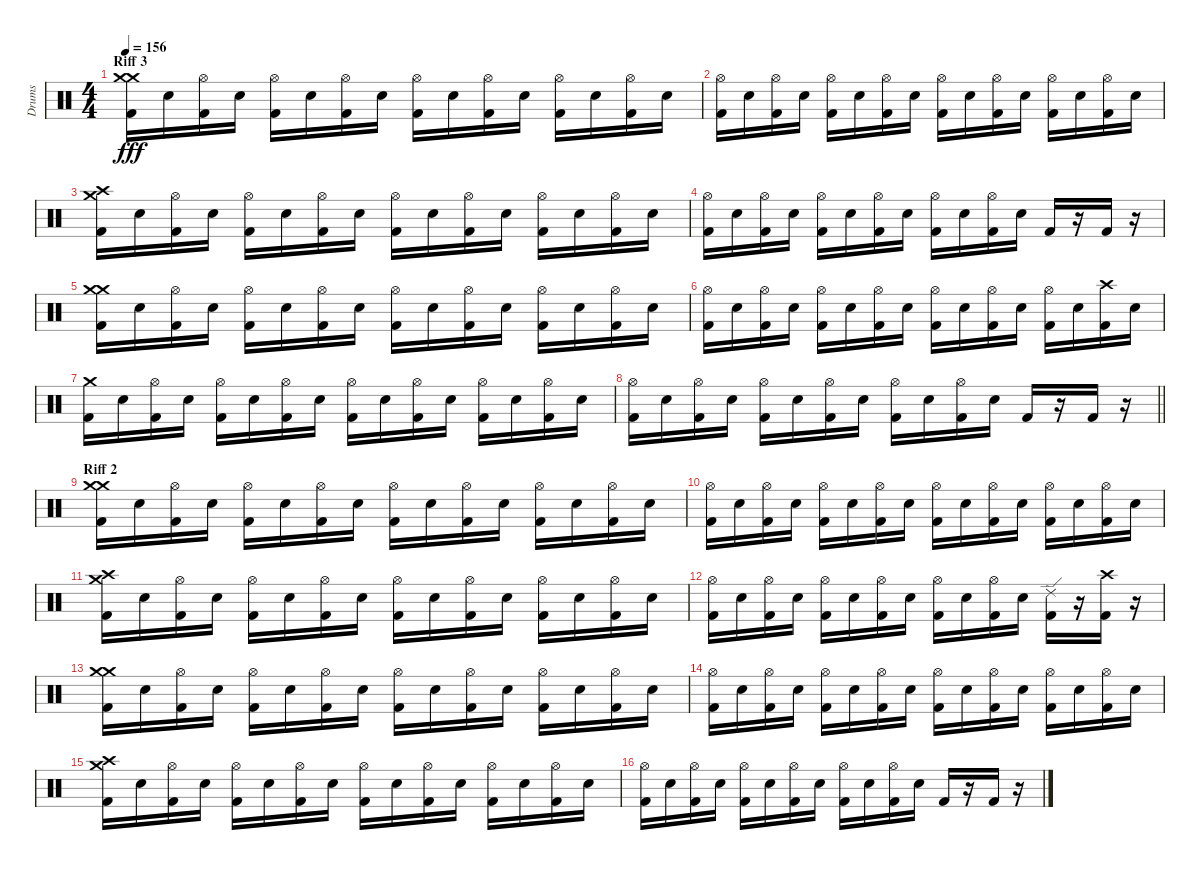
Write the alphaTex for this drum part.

\track ("Drums" "Drums") {instrument percussion}
\staff {score}
\articulation defaults
\ts (4 4)
\section ("" "Riff 3")
\tempo 156
\clef neutral
\ks c
("Kick (hit) 2" "Crash medium (hit)" "Crash medium (hit)").16{dy fff} "Snare (hit) 2".16 ("Kick (hit) 2" "Hi-Hat (open)").16 "Snare (hit) 2".16 ("Kick (hit) 2" "Hi-Hat (open)").16 "Snare (hit) 2".16 ("Kick (hit) 2" "Hi-Hat (open)").16 "Snare (hit) 2".16 ("Kick (hit) 2" "Hi-Hat (open)").16 "Snare (hit) 2".16 ("Kick (hit) 2" "Hi-Hat (open)").16 "Snare (hit) 2".16 ("Kick (hit) 2" "Hi-Hat (open)").16 "Snare (hit) 2".16 ("Kick (hit) 2" "Hi-Hat (open)").16 "Snare (hit) 2".16 |
("Kick (hit) 2" "Hi-Hat (open)").16 "Snare (hit) 2".16 ("Kick (hit) 2" "Hi-Hat (open)").16 "Snare (hit) 2".16 ("Kick (hit) 2" "Hi-Hat (open)").16 "Snare (hit) 2".16 ("Kick (hit) 2" "Hi-Hat (open)").16 "Snare (hit) 2".16 ("Kick (hit) 2" "Hi-Hat (open)").16 "Snare (hit) 2".16 ("Kick (hit) 2" "Hi-Hat (open)").16 "Snare (hit) 2".16 ("Kick (hit) 2" "Hi-Hat (open)").16 "Snare (hit) 2".16 ("Kick (hit) 2" "Hi-Hat (open)").16 "Snare (hit) 2".16 |
("Kick (hit) 2" "Crash high (hit)" "Crash medium (hit)").16 "Snare (hit) 2".16 ("Kick (hit) 2" "Hi-Hat (open)").16 "Snare (hit) 2".16 ("Kick (hit) 2" "Hi-Hat (open)").16 "Snare (hit) 2".16 ("Kick (hit) 2" "Hi-Hat (open)").16 "Snare (hit) 2".16 ("Kick (hit) 2" "Hi-Hat (open)").16 "Snare (hit) 2".16 ("Kick (hit) 2" "Hi-Hat (open)").16 "Snare (hit) 2".16 ("Kick (hit) 2" "Hi-Hat (open)").16 "Snare (hit) 2".16 ("Kick (hit) 2" "Hi-Hat (open)").16 "Snare (hit) 2".16 |
("Kick (hit) 2" "Hi-Hat (open)").16 "Snare (hit) 2".16 ("Kick (hit) 2" "Hi-Hat (open)").16 "Snare (hit) 2".16 ("Kick (hit) 2" "Hi-Hat (open)").16 "Snare (hit) 2".16 ("Kick (hit) 2" "Hi-Hat (open)").16 "Snare (hit) 2".16 ("Kick (hit) 2" "Hi-Hat (open)").16 "Snare (hit) 2".16 ("Kick (hit) 2" "Hi-Hat (open)").16 "Snare (hit) 2".16 "Kick (hit) 2".16 r.16 "Kick (hit) 2".16 r.16 |
("Kick (hit) 2" "Crash medium (hit)" "Crash medium (hit)").16 "Snare (hit) 2".16 ("Kick (hit) 2" "Hi-Hat (open)").16 "Snare (hit) 2".16 ("Kick (hit) 2" "Hi-Hat (open)").16 "Snare (hit) 2".16 ("Kick (hit) 2" "Hi-Hat (open)").16 "Snare (hit) 2".16 ("Kick (hit) 2" "Hi-Hat (open)").16 "Snare (hit) 2".16 ("Kick (hit) 2" "Hi-Hat (open)").16 "Snare (hit) 2".16 ("Kick (hit) 2" "Hi-Hat (open)").16 "Snare (hit) 2".16 ("Kick (hit) 2" "Hi-Hat (open)").16 "Snare (hit) 2".16 |
("Kick (hit) 2" "Hi-Hat (open)").16 "Snare (hit) 2".16 ("Kick (hit) 2" "Hi-Hat (open)").16 "Snare (hit) 2".16 ("Kick (hit) 2" "Hi-Hat (open)").16 "Snare (hit) 2".16 ("Kick (hit) 2" "Hi-Hat (open)").16 "Snare (hit) 2".16 ("Kick (hit) 2" "Hi-Hat (open)").16 "Snare (hit) 2".16 ("Kick (hit) 2" "Hi-Hat (open)").16 "Snare (hit) 2".16 ("Kick (hit) 2" "Hi-Hat (open)").16 "Snare (hit) 2".16 ("Kick (hit) 2" "Crash high (hit)").16 "Snare (hit) 2".16 |
("Kick (hit) 2" "Crash medium (hit)").16 "Snare (hit) 2".16 ("Kick (hit) 2" "Hi-Hat (open)").16 "Snare (hit) 2".16 ("Kick (hit) 2" "Hi-Hat (open)").16 "Snare (hit) 2".16 ("Kick (hit) 2" "Hi-Hat (open)").16 "Snare (hit) 2".16 ("Kick (hit) 2" "Hi-Hat (open)").16 "Snare (hit) 2".16 ("Kick (hit) 2" "Hi-Hat (open)").16 "Snare (hit) 2".16 ("Kick (hit) 2" "Hi-Hat (open)").16 "Snare (hit) 2".16 ("Kick (hit) 2" "Hi-Hat (open)").16 "Snare (hit) 2".16 |
\barLineRight lightlight
("Kick (hit) 2" "Hi-Hat (open)").16 "Snare (hit) 2".16 ("Kick (hit) 2" "Hi-Hat (open)").16 "Snare (hit) 2".16 ("Kick (hit) 2" "Hi-Hat (open)").16 "Snare (hit) 2".16 ("Kick (hit) 2" "Hi-Hat (open)").16 "Snare (hit) 2".16 ("Kick (hit) 2" "Hi-Hat (open)").16 "Snare (hit) 2".16 ("Kick (hit) 2" "Hi-Hat (open)").16 "Snare (hit) 2".16 "Kick (hit) 2".16 r.16 "Kick (hit) 2".16 r.16 |
\section ("" "Riff 2")
("Kick (hit) 2" "Crash medium (hit)" "Crash medium (hit)").16 "Snare (hit) 2".16 ("Kick (hit) 2" "Hi-Hat (open)").16 "Snare (hit) 2".16 ("Kick (hit) 2" "Hi-Hat (open)").16 "Snare (hit) 2".16 ("Kick (hit) 2" "Hi-Hat (open)").16 "Snare (hit) 2".16 ("Kick (hit) 2" "Hi-Hat (open)").16 "Snare (hit) 2".16 ("Kick (hit) 2" "Hi-Hat (open)").16 "Snare (hit) 2".16 ("Kick (hit) 2" "Hi-Hat (open)").16 "Snare (hit) 2".16 ("Kick (hit) 2" "Hi-Hat (open)").16 "Snare (hit) 2".16 |
("Kick (hit) 2" "Hi-Hat (open)").16 "Snare (hit) 2".16 ("Kick (hit) 2" "Hi-Hat (open)").16 "Snare (hit) 2".16 ("Kick (hit) 2" "Hi-Hat (open)").16 "Snare (hit) 2".16 ("Kick (hit) 2" "Hi-Hat (open)").16 "Snare (hit) 2".16 ("Kick (hit) 2" "Hi-Hat (open)").16 "Snare (hit) 2".16 ("Kick (hit) 2" "Hi-Hat (open)").16 "Snare (hit) 2".16 ("Kick (hit) 2" "Hi-Hat (open)").16 "Snare (hit) 2".16 ("Kick (hit) 2" "Hi-Hat (open)").16 "Snare (hit) 2".16 |
("Kick (hit) 2" "Crash high (hit)" "Crash medium (hit)").16 "Snare (hit) 2".16 ("Kick (hit) 2" "Hi-Hat (open)").16 "Snare (hit) 2".16 ("Kick (hit) 2" "Hi-Hat (open)").16 "Snare (hit) 2".16 ("Kick (hit) 2" "Hi-Hat (open)").16 "Snare (hit) 2".16 ("Kick (hit) 2" "Hi-Hat (open)").16 "Snare (hit) 2".16 ("Kick (hit) 2" "Hi-Hat (open)").16 "Snare (hit) 2".16 ("Kick (hit) 2" "Hi-Hat (open)").16 "Snare (hit) 2".16 ("Kick (hit) 2" "Hi-Hat (open)").16 "Snare (hit) 2".16 |
("Kick (hit) 2" "Hi-Hat (open)").16 "Snare (hit) 2".16 ("Kick (hit) 2" "Hi-Hat (open)").16 "Snare (hit) 2".16 ("Kick (hit) 2" "Hi-Hat (open)").16 "Snare (hit) 2".16 ("Kick (hit) 2" "Hi-Hat (open)").16 "Snare (hit) 2".16 ("Kick (hit) 2" "Hi-Hat (open)").16 "Snare (hit) 2".16 ("Kick (hit) 2" "Hi-Hat (open)").16 "Snare (hit) 2".16 ("Kick (hit) 2" "Ride (edge) 2").16 r.16 ("Kick (hit) 2" "Crash high (hit)").16 r.16 |
("Kick (hit) 2" "Crash medium (hit)" "Crash medium (hit)").16 "Snare (hit) 2".16 ("Kick (hit) 2" "Hi-Hat (open)").16 "Snare (hit) 2".16 ("Kick (hit) 2" "Hi-Hat (open)").16 "Snare (hit) 2".16 ("Kick (hit) 2" "Hi-Hat (open)").16 "Snare (hit) 2".16 ("Kick (hit) 2" "Hi-Hat (open)").16 "Snare (hit) 2".16 ("Kick (hit) 2" "Hi-Hat (open)").16 "Snare (hit) 2".16 ("Kick (hit) 2" "Hi-Hat (open)").16 "Snare (hit) 2".16 ("Kick (hit) 2" "Hi-Hat (open)").16 "Snare (hit) 2".16 |
("Kick (hit) 2" "Hi-Hat (open)").16 "Snare (hit) 2".16 ("Kick (hit) 2" "Hi-Hat (open)").16 "Snare (hit) 2".16 ("Kick (hit) 2" "Hi-Hat (open)").16 "Snare (hit) 2".16 ("Kick (hit) 2" "Hi-Hat (open)").16 "Snare (hit) 2".16 ("Kick (hit) 2" "Hi-Hat (open)").16 "Snare (hit) 2".16 ("Kick (hit) 2" "Hi-Hat (open)").16 "Snare (hit) 2".16 ("Kick (hit) 2" "Hi-Hat (open)").16 "Snare (hit) 2".16 ("Kick (hit) 2" "Hi-Hat (open)").16 "Snare (hit) 2".16 |
("Kick (hit) 2" "Crash high (hit)" "Crash medium (hit)").16 "Snare (hit) 2".16 ("Kick (hit) 2" "Hi-Hat (open)").16 "Snare (hit) 2".16 ("Kick (hit) 2" "Hi-Hat (open)").16 "Snare (hit) 2".16 ("Kick (hit) 2" "Hi-Hat (open)").16 "Snare (hit) 2".16 ("Kick (hit) 2" "Hi-Hat (open)").16 "Snare (hit) 2".16 ("Kick (hit) 2" "Hi-Hat (open)").16 "Snare (hit) 2".16 ("Kick (hit) 2" "Hi-Hat (open)").16 "Snare (hit) 2".16 ("Kick (hit) 2" "Hi-Hat (open)").16 "Snare (hit) 2".16 |
("Kick (hit) 2" "Hi-Hat (open)").16 "Snare (hit) 2".16 ("Kick (hit) 2" "Hi-Hat (open)").16 "Snare (hit) 2".16 ("Kick (hit) 2" "Hi-Hat (open)").16 "Snare (hit) 2".16 ("Kick (hit) 2" "Hi-Hat (open)").16 "Snare (hit) 2".16 ("Kick (hit) 2" "Hi-Hat (open)").16 "Snare (hit) 2".16 ("Kick (hit) 2" "Hi-Hat (open)").16 "Snare (hit) 2".16 "Kick (hit) 2".16 r.16 "Kick (hit) 2".16 r.16
